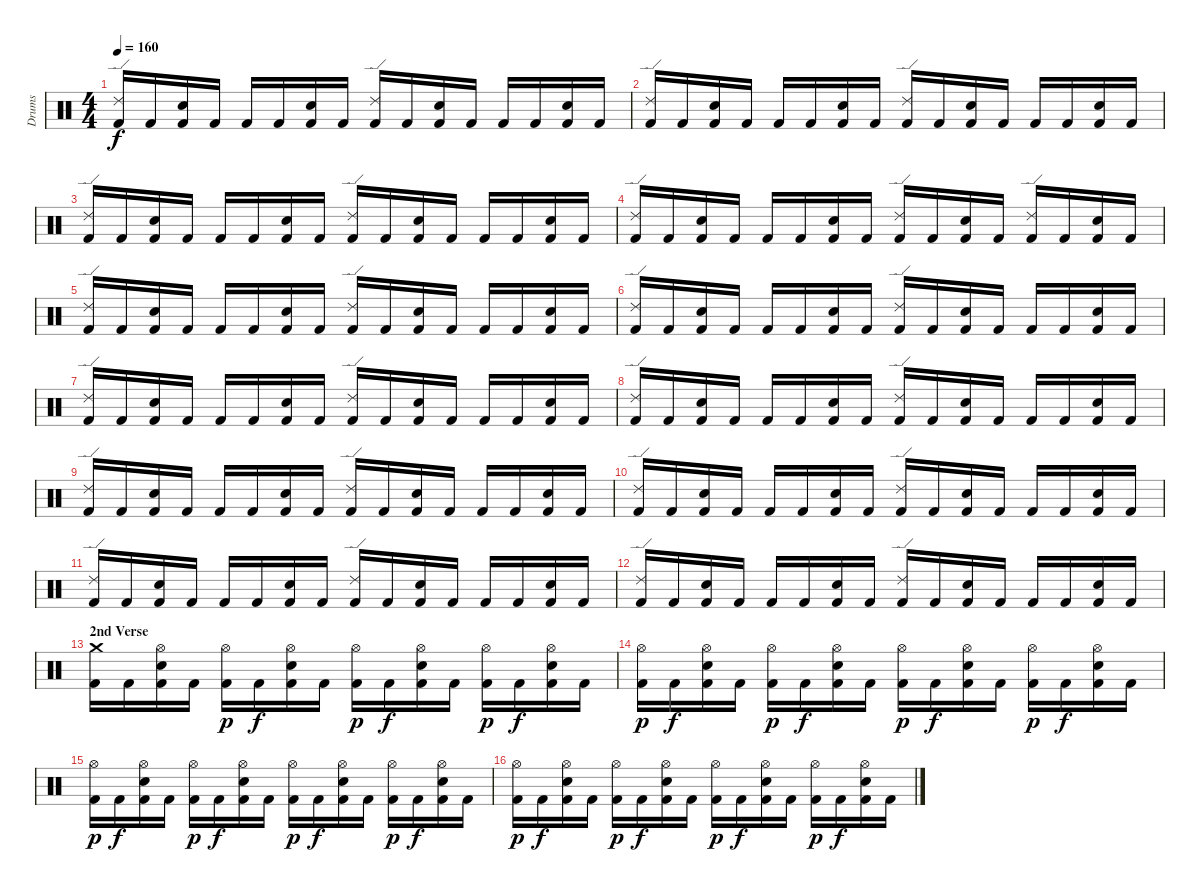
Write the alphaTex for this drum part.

\track ("Drums" "Drums") {instrument percussion}
\staff {score}
\articulation defaults
\ts (4 4)
\tempo 160
\clef neutral
\ks c
("Ride (edge) 2" "Kick (hit) 2").16{dy f} "Kick (hit) 2".16 ("Electric Snare (hit)" "Kick (hit) 2").16 "Kick (hit) 2".16 "Kick (hit) 2".16 "Kick (hit) 2".16 ("Electric Snare (hit)" "Kick (hit) 2").16 "Kick (hit) 2".16 ("Ride (edge) 2" "Kick (hit) 2").16 "Kick (hit) 2".16 ("Electric Snare (hit)" "Kick (hit) 2").16 "Kick (hit) 2".16 "Kick (hit) 2".16 "Kick (hit) 2".16 ("Electric Snare (hit)" "Kick (hit) 2").16 "Kick (hit) 2".16 |
("Ride (edge) 2" "Kick (hit) 2").16 "Kick (hit) 2".16 ("Electric Snare (hit)" "Kick (hit) 2").16 "Kick (hit) 2".16 "Kick (hit) 2".16 "Kick (hit) 2".16 ("Electric Snare (hit)" "Kick (hit) 2").16 "Kick (hit) 2".16 ("Ride (edge) 2" "Kick (hit) 2").16 "Kick (hit) 2".16 ("Electric Snare (hit)" "Kick (hit) 2").16 "Kick (hit) 2".16 "Kick (hit) 2".16 "Kick (hit) 2".16 ("Electric Snare (hit)" "Kick (hit) 2").16 "Kick (hit) 2".16 |
("Ride (edge) 2" "Kick (hit) 2").16 "Kick (hit) 2".16 ("Electric Snare (hit)" "Kick (hit) 2").16 "Kick (hit) 2".16 "Kick (hit) 2".16 "Kick (hit) 2".16 ("Electric Snare (hit)" "Kick (hit) 2").16 "Kick (hit) 2".16 ("Ride (edge) 2" "Kick (hit) 2").16 "Kick (hit) 2".16 ("Electric Snare (hit)" "Kick (hit) 2").16 "Kick (hit) 2".16 "Kick (hit) 2".16 "Kick (hit) 2".16 ("Electric Snare (hit)" "Kick (hit) 2").16 "Kick (hit) 2".16 |
("Ride (edge) 2" "Kick (hit) 2").16 "Kick (hit) 2".16 ("Electric Snare (hit)" "Kick (hit) 2").16 "Kick (hit) 2".16 "Kick (hit) 2".16 "Kick (hit) 2".16 ("Electric Snare (hit)" "Kick (hit) 2").16 "Kick (hit) 2".16 ("Ride (edge) 2" "Kick (hit) 2").16 "Kick (hit) 2".16 ("Electric Snare (hit)" "Kick (hit) 2").16 "Kick (hit) 2".16 ("Ride (edge) 2" "Kick (hit) 2").16 "Kick (hit) 2".16 ("Electric Snare (hit)" "Kick (hit) 2").16 "Kick (hit) 2".16 |
("Ride (edge) 2" "Kick (hit) 2").16 "Kick (hit) 2".16 ("Electric Snare (hit)" "Kick (hit) 2").16 "Kick (hit) 2".16 "Kick (hit) 2".16 "Kick (hit) 2".16 ("Electric Snare (hit)" "Kick (hit) 2").16 "Kick (hit) 2".16 ("Ride (edge) 2" "Kick (hit) 2").16 "Kick (hit) 2".16 ("Electric Snare (hit)" "Kick (hit) 2").16 "Kick (hit) 2".16 "Kick (hit) 2".16 "Kick (hit) 2".16 ("Electric Snare (hit)" "Kick (hit) 2").16 "Kick (hit) 2".16 |
("Ride (edge) 2" "Kick (hit) 2").16 "Kick (hit) 2".16 ("Electric Snare (hit)" "Kick (hit) 2").16 "Kick (hit) 2".16 "Kick (hit) 2".16 "Kick (hit) 2".16 ("Electric Snare (hit)" "Kick (hit) 2").16 "Kick (hit) 2".16 ("Ride (edge) 2" "Kick (hit) 2").16 "Kick (hit) 2".16 ("Electric Snare (hit)" "Kick (hit) 2").16 "Kick (hit) 2".16 "Kick (hit) 2".16 "Kick (hit) 2".16 ("Electric Snare (hit)" "Kick (hit) 2").16 "Kick (hit) 2".16 |
("Ride (edge) 2" "Kick (hit) 2").16 "Kick (hit) 2".16 ("Electric Snare (hit)" "Kick (hit) 2").16 "Kick (hit) 2".16 "Kick (hit) 2".16 "Kick (hit) 2".16 ("Electric Snare (hit)" "Kick (hit) 2").16 "Kick (hit) 2".16 ("Ride (edge) 2" "Kick (hit) 2").16 "Kick (hit) 2".16 ("Electric Snare (hit)" "Kick (hit) 2").16 "Kick (hit) 2".16 "Kick (hit) 2".16 "Kick (hit) 2".16 ("Electric Snare (hit)" "Kick (hit) 2").16 "Kick (hit) 2".16 |
("Ride (edge) 2" "Kick (hit) 2").16 "Kick (hit) 2".16 ("Electric Snare (hit)" "Kick (hit) 2").16 "Kick (hit) 2".16 "Kick (hit) 2".16 "Kick (hit) 2".16 ("Electric Snare (hit)" "Kick (hit) 2").16 "Kick (hit) 2".16 ("Ride (edge) 2" "Kick (hit) 2").16 "Kick (hit) 2".16 ("Electric Snare (hit)" "Kick (hit) 2").16 "Kick (hit) 2".16 "Kick (hit) 2".16 "Kick (hit) 2".16 ("Electric Snare (hit)" "Kick (hit) 2").16 "Kick (hit) 2".16 |
("Ride (edge) 2" "Kick (hit) 2").16 "Kick (hit) 2".16 ("Electric Snare (hit)" "Kick (hit) 2").16 "Kick (hit) 2".16 "Kick (hit) 2".16 "Kick (hit) 2".16 ("Electric Snare (hit)" "Kick (hit) 2").16 "Kick (hit) 2".16 ("Ride (edge) 2" "Kick (hit) 2").16 "Kick (hit) 2".16 ("Electric Snare (hit)" "Kick (hit) 2").16 "Kick (hit) 2".16 "Kick (hit) 2".16 "Kick (hit) 2".16 ("Electric Snare (hit)" "Kick (hit) 2").16 "Kick (hit) 2".16 |
("Ride (edge) 2" "Kick (hit) 2").16 "Kick (hit) 2".16 ("Electric Snare (hit)" "Kick (hit) 2").16 "Kick (hit) 2".16 "Kick (hit) 2".16 "Kick (hit) 2".16 ("Electric Snare (hit)" "Kick (hit) 2").16 "Kick (hit) 2".16 ("Ride (edge) 2" "Kick (hit) 2").16 "Kick (hit) 2".16 ("Electric Snare (hit)" "Kick (hit) 2").16 "Kick (hit) 2".16 "Kick (hit) 2".16 "Kick (hit) 2".16 ("Electric Snare (hit)" "Kick (hit) 2").16 "Kick (hit) 2".16 |
("Ride (edge) 2" "Kick (hit) 2").16 "Kick (hit) 2".16 ("Electric Snare (hit)" "Kick (hit) 2").16 "Kick (hit) 2".16 "Kick (hit) 2".16 "Kick (hit) 2".16 ("Electric Snare (hit)" "Kick (hit) 2").16 "Kick (hit) 2".16 ("Ride (edge) 2" "Kick (hit) 2").16 "Kick (hit) 2".16 ("Electric Snare (hit)" "Kick (hit) 2").16 "Kick (hit) 2".16 "Kick (hit) 2".16 "Kick (hit) 2".16 ("Electric Snare (hit)" "Kick (hit) 2").16 "Kick (hit) 2".16 |
("Ride (edge) 2" "Kick (hit) 2").16 "Kick (hit) 2".16 ("Electric Snare (hit)" "Kick (hit) 2").16 "Kick (hit) 2".16 "Kick (hit) 2".16 "Kick (hit) 2".16 ("Electric Snare (hit)" "Kick (hit) 2").16 "Kick (hit) 2".16 ("Ride (edge) 2" "Kick (hit) 2").16 "Kick (hit) 2".16 ("Electric Snare (hit)" "Kick (hit) 2").16 "Kick (hit) 2".16 "Kick (hit) 2".16 "Kick (hit) 2".16 ("Electric Snare (hit)" "Kick (hit) 2").16 "Kick (hit) 2".16 |
\section ("" "2nd Verse")
("Crash medium (hit)" "Kick (hit) 2").16 "Kick (hit) 2".16 ("Hi-Hat (open)" "Electric Snare (hit)" "Kick (hit) 2").16 "Kick (hit) 2".16 ("Hi-Hat (open)" "Kick (hit) 2").16{dy p} "Kick (hit) 2".16{dy f} ("Hi-Hat (open)" "Electric Snare (hit)" "Kick (hit) 2").16 "Kick (hit) 2".16 ("Hi-Hat (open)" "Kick (hit) 2").16{dy p} "Kick (hit) 2".16{dy f} ("Hi-Hat (open)" "Electric Snare (hit)" "Kick (hit) 2").16 "Kick (hit) 2".16 ("Hi-Hat (open)" "Kick (hit) 2").16{dy p} "Kick (hit) 2".16{dy f} ("Hi-Hat (open)" "Electric Snare (hit)" "Kick (hit) 2").16 "Kick (hit) 2".16 |
("Hi-Hat (open)" "Kick (hit) 2").16{dy p} "Kick (hit) 2".16{dy f} ("Hi-Hat (open)" "Electric Snare (hit)" "Kick (hit) 2").16 "Kick (hit) 2".16 ("Hi-Hat (open)" "Kick (hit) 2").16{dy p} "Kick (hit) 2".16{dy f} ("Hi-Hat (open)" "Electric Snare (hit)" "Kick (hit) 2").16 "Kick (hit) 2".16 ("Hi-Hat (open)" "Kick (hit) 2").16{dy p} "Kick (hit) 2".16{dy f} ("Hi-Hat (open)" "Electric Snare (hit)" "Kick (hit) 2").16 "Kick (hit) 2".16 ("Hi-Hat (open)" "Kick (hit) 2").16{dy p} "Kick (hit) 2".16{dy f} ("Hi-Hat (open)" "Electric Snare (hit)" "Kick (hit) 2").16 "Kick (hit) 2".16 |
("Hi-Hat (open)" "Kick (hit) 2").16{dy p} "Kick (hit) 2".16{dy f} ("Hi-Hat (open)" "Electric Snare (hit)" "Kick (hit) 2").16 "Kick (hit) 2".16 ("Hi-Hat (open)" "Kick (hit) 2").16{dy p} "Kick (hit) 2".16{dy f} ("Hi-Hat (open)" "Electric Snare (hit)" "Kick (hit) 2").16 "Kick (hit) 2".16 ("Hi-Hat (open)" "Kick (hit) 2").16{dy p} "Kick (hit) 2".16{dy f} ("Hi-Hat (open)" "Electric Snare (hit)" "Kick (hit) 2").16 "Kick (hit) 2".16 ("Hi-Hat (open)" "Kick (hit) 2").16{dy p} "Kick (hit) 2".16{dy f} ("Hi-Hat (open)" "Electric Snare (hit)" "Kick (hit) 2").16 "Kick (hit) 2".16 |
("Hi-Hat (open)" "Kick (hit) 2").16{dy p} "Kick (hit) 2".16{dy f} ("Hi-Hat (open)" "Electric Snare (hit)" "Kick (hit) 2").16 "Kick (hit) 2".16 ("Hi-Hat (open)" "Kick (hit) 2").16{dy p} "Kick (hit) 2".16{dy f} ("Hi-Hat (open)" "Electric Snare (hit)" "Kick (hit) 2").16 "Kick (hit) 2".16 ("Hi-Hat (open)" "Kick (hit) 2").16{dy p} "Kick (hit) 2".16{dy f} ("Hi-Hat (open)" "Electric Snare (hit)" "Kick (hit) 2").16 "Kick (hit) 2".16 ("Hi-Hat (open)" "Kick (hit) 2").16{dy p} "Kick (hit) 2".16{dy f} ("Hi-Hat (open)" "Electric Snare (hit)" "Kick (hit) 2").16 "Kick (hit) 2".16
